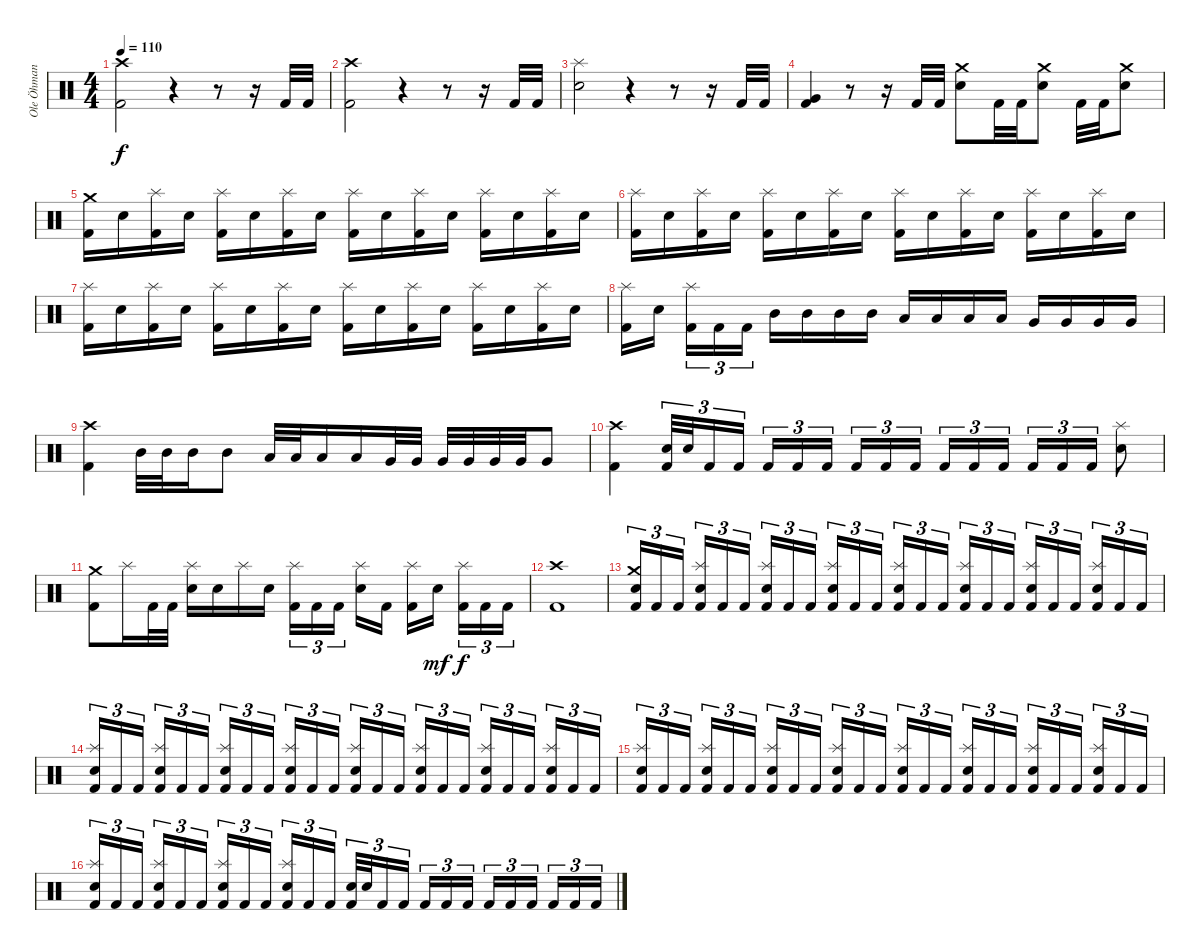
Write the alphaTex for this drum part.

\track ("Ole Öhman" "Ole Öhman") {instrument percussion}
\staff {score}
\articulation defaults
\ts (4 4)
\tempo 110
\clef neutral
\ks c
("Crash high (hit)" "Kick (hit) 2").2{dy f} r.4 r.8 r.16 "Kick (hit) 2".32 "Kick (hit) 2".32 |
("Crash high (hit)" "Kick (hit) 2").2 r.4 r.8 r.16 "Kick (hit) 2".32 "Kick (hit) 2".32 |
("Splash (hit)" "Snare (hit) 2").2 r.4 r.8 r.16 "Kick (hit) 2".32 "Kick (hit) 2".32 |
("Very Low Tom (hit)" "Kick (hit) 2").4 r.8 r.16 "Kick (hit) 2".32 "Kick (hit) 2".32 ("Crash medium (hit)" "Electric Snare (hit)").8 "Kick (hit) 2".32 "Kick (hit) 2".32 ("Crash medium (hit)" "Electric Snare (hit)").8 "Kick (hit) 2".32 "Kick (hit) 2".32 ("Crash medium (hit)" "Electric Snare (hit)").8 |
("Crash medium (hit)" "Kick (hit) 2").16 "Electric Snare (hit)".16 ("Splash (hit)" "Kick (hit) 2").16 "Electric Snare (hit)".16 ("Splash (hit)" "Kick (hit) 2").16 "Electric Snare (hit)".16 ("Splash (hit)" "Kick (hit) 2").16 "Electric Snare (hit)".16 ("Splash (hit)" "Kick (hit) 2").16 "Electric Snare (hit)".16 ("Splash (hit)" "Kick (hit) 2").16 "Electric Snare (hit)".16 ("Splash (hit)" "Kick (hit) 2").16 "Electric Snare (hit)".16 ("Splash (hit)" "Kick (hit) 2").16 "Electric Snare (hit)".16 |
("Splash (hit)" "Kick (hit) 2").16 "Electric Snare (hit)".16 ("Splash (hit)" "Kick (hit) 2").16 "Electric Snare (hit)".16 ("Splash (hit)" "Kick (hit) 2").16 "Electric Snare (hit)".16 ("Splash (hit)" "Kick (hit) 2").16 "Electric Snare (hit)".16 ("Splash (hit)" "Kick (hit) 2").16 "Electric Snare (hit)".16 ("Splash (hit)" "Kick (hit) 2").16 "Electric Snare (hit)".16 ("Splash (hit)" "Kick (hit) 2").16 "Electric Snare (hit)".16 ("Splash (hit)" "Kick (hit) 2").16 "Electric Snare (hit)".16 |
("Splash (hit)" "Kick (hit) 2").16 "Electric Snare (hit)".16 ("Splash (hit)" "Kick (hit) 2").16 "Electric Snare (hit)".16 ("Splash (hit)" "Kick (hit) 2").16 "Electric Snare (hit)".16 ("Splash (hit)" "Kick (hit) 2").16 "Electric Snare (hit)".16 ("Splash (hit)" "Kick (hit) 2").16 "Electric Snare (hit)".16 ("Splash (hit)" "Kick (hit) 2").16 "Electric Snare (hit)".16 ("Splash (hit)" "Kick (hit) 2").16 "Electric Snare (hit)".16 ("Splash (hit)" "Kick (hit) 2").16 "Electric Snare (hit)".16 |
("Splash (hit)" "Kick (hit) 2").16 "Electric Snare (hit)".16 ("Splash (hit)" "Kick (hit) 2").16{tu (3 2)} "Kick (hit) 2".16{tu (3 2)} "Kick (hit) 2".16{tu (3 2)} "Mid Tom (hit)".16 "Mid Tom (hit)".16 "Mid Tom (hit)".16 "Mid Tom (hit)".16 "Low Tom (hit)".16 "Low Tom (hit)".16 "Low Tom (hit)".16 "Low Tom (hit)".16 "Very Low Tom (hit)".16 "Very Low Tom (hit)".16 "Very Low Tom (hit)".16 "Very Low Tom (hit)".16 |
("Crash high (hit)" "Kick (hit) 2").4 "Mid Tom (hit)".32 "Mid Tom (hit)".32 "Mid Tom (hit)".16 "Mid Tom (hit)".8 "Low Tom (hit)".32 "Low Tom (hit)".32 "Low Tom (hit)".16 "Low Tom (hit)".16 "Very Low Tom (hit)".32 "Very Low Tom (hit)".32 "Very Low Tom (hit)".32 "Very Low Tom (hit)".32 "Very Low Tom (hit)".32 "Very Low Tom (hit)".32 "Very Low Tom (hit)".8 |
("Crash high (hit)" "Kick (hit) 2").4 ("Electric Snare (hit)" "Kick (hit) 2").32{tu (3 2)} "Electric Snare (hit)".32{tu (3 2)} "Kick (hit) 2".16{tu (3 2)} "Kick (hit) 2".16{tu (3 2)} "Kick (hit) 2".16{tu (3 2)} "Kick (hit) 2".16{tu (3 2)} "Kick (hit) 2".16{tu (3 2)} "Kick (hit) 2".16{tu (3 2)} "Kick (hit) 2".16{tu (3 2)} "Kick (hit) 2".16{tu (3 2)} "Kick (hit) 2".16{tu (3 2)} "Kick (hit) 2".16{tu (3 2)} "Kick (hit) 2".16{tu (3 2)} "Kick (hit) 2".16{tu (3 2)} "Kick (hit) 2".16{tu (3 2)} "Kick (hit) 2".16{tu (3 2)} ("Splash (hit)" "Electric Snare (hit)").8 |
("Crash medium (hit)" "Kick (hit) 2").8 "Splash (hit)".16 "Kick (hit) 2".32 "Kick (hit) 2".32 ("Splash (hit)" "Electric Snare (hit)").16 "Electric Snare (hit)".16 "Splash (hit)".16 "Electric Snare (hit)".16 ("Splash (hit)" "Kick (hit) 2").16{tu (3 2)} "Kick (hit) 2".16{tu (3 2)} "Kick (hit) 2".16{tu (3 2)} ("Splash (hit)" "Electric Snare (hit)").16 "Kick (hit) 2".16 ("Splash (hit)" "Kick (hit) 2").16 "Electric Snare (hit)".16{dy mf} ("Splash (hit)" "Kick (hit) 2").16{tu (3 2) dy f} "Kick (hit) 2".16{tu (3 2)} "Kick (hit) 2".16{tu (3 2)} |
("Crash high (hit)" "Kick (hit) 2").1 |
("Crash medium (hit)" "Electric Snare (hit)" "Kick (hit) 2").16{tu (3 2)} "Kick (hit) 2".16{tu (3 2)} "Kick (hit) 2".16{tu (3 2)} ("Splash (hit)" "Electric Snare (hit)" "Kick (hit) 2").16{tu (3 2)} "Kick (hit) 2".16{tu (3 2)} "Kick (hit) 2".16{tu (3 2)} ("Splash (hit)" "Electric Snare (hit)" "Kick (hit) 2").16{tu (3 2)} "Kick (hit) 2".16{tu (3 2)} "Kick (hit) 2".16{tu (3 2)} ("Splash (hit)" "Electric Snare (hit)" "Kick (hit) 2").16{tu (3 2)} "Kick (hit) 2".16{tu (3 2)} "Kick (hit) 2".16{tu (3 2)} ("Splash (hit)" "Electric Snare (hit)" "Kick (hit) 2").16{tu (3 2)} "Kick (hit) 2".16{tu (3 2)} "Kick (hit) 2".16{tu (3 2)} ("Splash (hit)" "Electric Snare (hit)" "Kick (hit) 2").16{tu (3 2)} "Kick (hit) 2".16{tu (3 2)} "Kick (hit) 2".16{tu (3 2)} ("Splash (hit)" "Electric Snare (hit)" "Kick (hit) 2").16{tu (3 2)} "Kick (hit) 2".16{tu (3 2)} "Kick (hit) 2".16{tu (3 2)} ("Splash (hit)" "Electric Snare (hit)" "Kick (hit) 2").16{tu (3 2)} "Kick (hit) 2".16{tu (3 2)} "Kick (hit) 2".16{tu (3 2)} |
("Splash (hit)" "Electric Snare (hit)" "Kick (hit) 2").16{tu (3 2)} "Kick (hit) 2".16{tu (3 2)} "Kick (hit) 2".16{tu (3 2)} ("Splash (hit)" "Electric Snare (hit)" "Kick (hit) 2").16{tu (3 2)} "Kick (hit) 2".16{tu (3 2)} "Kick (hit) 2".16{tu (3 2)} ("Splash (hit)" "Electric Snare (hit)" "Kick (hit) 2").16{tu (3 2)} "Kick (hit) 2".16{tu (3 2)} "Kick (hit) 2".16{tu (3 2)} ("Splash (hit)" "Electric Snare (hit)" "Kick (hit) 2").16{tu (3 2)} "Kick (hit) 2".16{tu (3 2)} "Kick (hit) 2".16{tu (3 2)} ("Splash (hit)" "Electric Snare (hit)" "Kick (hit) 2").16{tu (3 2)} "Kick (hit) 2".16{tu (3 2)} "Kick (hit) 2".16{tu (3 2)} ("Splash (hit)" "Electric Snare (hit)" "Kick (hit) 2").16{tu (3 2)} "Kick (hit) 2".16{tu (3 2)} "Kick (hit) 2".16{tu (3 2)} ("Splash (hit)" "Electric Snare (hit)" "Kick (hit) 2").16{tu (3 2)} "Kick (hit) 2".16{tu (3 2)} "Kick (hit) 2".16{tu (3 2)} ("Splash (hit)" "Electric Snare (hit)" "Kick (hit) 2").16{tu (3 2)} "Kick (hit) 2".16{tu (3 2)} "Kick (hit) 2".16{tu (3 2)} |
("Splash (hit)" "Electric Snare (hit)" "Kick (hit) 2").16{tu (3 2)} "Kick (hit) 2".16{tu (3 2)} "Kick (hit) 2".16{tu (3 2)} ("Splash (hit)" "Electric Snare (hit)" "Kick (hit) 2").16{tu (3 2)} "Kick (hit) 2".16{tu (3 2)} "Kick (hit) 2".16{tu (3 2)} ("Splash (hit)" "Electric Snare (hit)" "Kick (hit) 2").16{tu (3 2)} "Kick (hit) 2".16{tu (3 2)} "Kick (hit) 2".16{tu (3 2)} ("Splash (hit)" "Electric Snare (hit)" "Kick (hit) 2").16{tu (3 2)} "Kick (hit) 2".16{tu (3 2)} "Kick (hit) 2".16{tu (3 2)} ("Splash (hit)" "Electric Snare (hit)" "Kick (hit) 2").16{tu (3 2)} "Kick (hit) 2".16{tu (3 2)} "Kick (hit) 2".16{tu (3 2)} ("Splash (hit)" "Electric Snare (hit)" "Kick (hit) 2").16{tu (3 2)} "Kick (hit) 2".16{tu (3 2)} "Kick (hit) 2".16{tu (3 2)} ("Splash (hit)" "Electric Snare (hit)" "Kick (hit) 2").16{tu (3 2)} "Kick (hit) 2".16{tu (3 2)} "Kick (hit) 2".16{tu (3 2)} ("Splash (hit)" "Electric Snare (hit)" "Kick (hit) 2").16{tu (3 2)} "Kick (hit) 2".16{tu (3 2)} "Kick (hit) 2".16{tu (3 2)} |
("Splash (hit)" "Electric Snare (hit)" "Kick (hit) 2").16{tu (3 2)} "Kick (hit) 2".16{tu (3 2)} "Kick (hit) 2".16{tu (3 2)} ("Splash (hit)" "Electric Snare (hit)" "Kick (hit) 2").16{tu (3 2)} "Kick (hit) 2".16{tu (3 2)} "Kick (hit) 2".16{tu (3 2)} ("Splash (hit)" "Electric Snare (hit)" "Kick (hit) 2").16{tu (3 2)} "Kick (hit) 2".16{tu (3 2)} "Kick (hit) 2".16{tu (3 2)} ("Splash (hit)" "Electric Snare (hit)" "Kick (hit) 2").16{tu (3 2)} "Kick (hit) 2".16{tu (3 2)} "Kick (hit) 2".16{tu (3 2)} ("Electric Snare (hit)" "Kick (hit) 2").32{tu (3 2)} "Electric Snare (hit)".32{tu (3 2)} "Kick (hit) 2".16{tu (3 2)} "Kick (hit) 2".16{tu (3 2)} "Kick (hit) 2".16{tu (3 2)} "Kick (hit) 2".16{tu (3 2)} "Kick (hit) 2".16{tu (3 2)} "Kick (hit) 2".16{tu (3 2)} "Kick (hit) 2".16{tu (3 2)} "Kick (hit) 2".16{tu (3 2)} "Kick (hit) 2".16{tu (3 2)} "Kick (hit) 2".16{tu (3 2)} "Kick (hit) 2".16{tu (3 2)}
